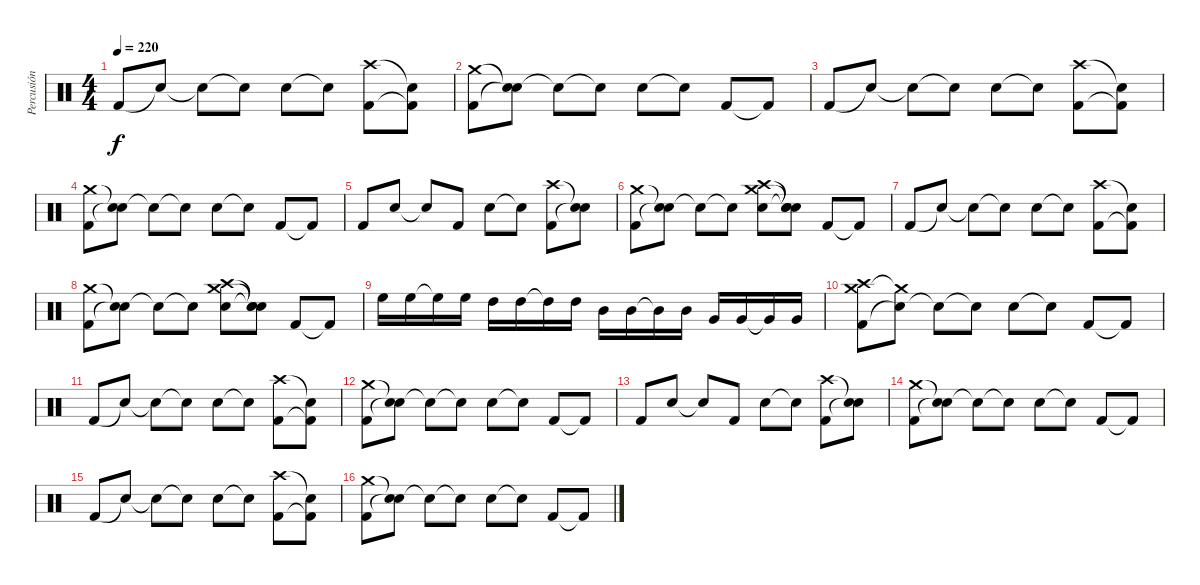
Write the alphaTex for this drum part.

\track ("Percusión" "Percusión") {instrument percussion}
\staff {score}
\articulation defaults
\ts (4 4)
\tempo 220
\clef neutral
\ks c "Kick (hit) 2".8{dy f} "Snare (hit)"{t}.8 "Snare (hit)"{t}.8 "Snare (hit)"{t}.8 "Snare (hit) 2".8 "Snare (hit)"{t}.8
("Kick (hit) 2" "Crash high (hit)").8 ("Kick (hit) 2"{t} "Snare (hit)"{t}).8 |
("Kick (hit) 2" "Crash medium (hit)").8 ("Snare (hit)"{t} "Snare (hit)"{t}).8 "Snare (hit)"{t}.8 "Snare (hit)"{t}.8 "Snare (hit) 2".8 "Snare (hit)"{t}.8 "Kick (hit) 2".8 "Kick (hit) 2"{t}.8 |
"Kick (hit) 2".8 "Snare (hit)"{t}.8 "Snare (hit)"{t}.8 "Snare (hit)"{t}.8 "Snare (hit) 2".8 "Snare (hit)"{t}.8 ("Kick (hit) 2" "Crash high (hit)").8 ("Kick (hit) 2"{t} "Snare (hit)"{t}).8 |
("Kick (hit) 2" "Crash medium (hit)").8 ("Snare (hit)"{t} "Snare (hit)"{t}).8 "Snare (hit)"{t}.8 "Snare (hit)"{t}.8 "Snare (hit) 2".8 "Snare (hit)"{t}.8 "Kick (hit) 2".8 "Kick (hit) 2"{t}.8 |
"Kick (hit) 2".8 "Snare (hit) 2".8 "Snare (hit)"{t}.8 "Kick (hit) 2".8 "Snare (hit) 2".8 "Snare (hit)"{t}.8 ("Kick (hit) 2" "Crash high (hit)").8 ("Snare (hit)"{t} "Snare (hit)"{t}).8 |
("Kick (hit) 2" "Crash medium (hit)").8 ("Snare (hit)"{t} "Snare (hit)"{t}).8 "Snare (hit)"{t}.8 "Snare (hit)"{t}.8 ("Snare (hit) 2" "Crash high (hit)" "Crash medium (hit)").8 ("Snare (hit)"{t} "Snare (hit)"{t} "Snare (hit)"{t}).8 "Kick (hit) 2".8 "Kick (hit) 2"{t}.8 |
"Kick (hit) 2".8 "Snare (hit)"{t}.8 "Snare (hit)"{t}.8 "Snare (hit)"{t}.8 "Snare (hit) 2".8 "Snare (hit)"{t}.8 ("Kick (hit) 2" "Crash high (hit)").8 ("Kick (hit) 2"{t} "Snare (hit)"{t}).8 |
("Kick (hit) 2" "Crash medium (hit)").8 ("Snare (hit)"{t} "Snare (hit)"{t}).8 "Snare (hit)"{t}.8 "Snare (hit)"{t}.8 ("Snare (hit) 2" "Crash high (hit)" "Crash medium (hit)").8 ("Snare (hit)"{t} "Snare (hit)"{t} "Snare (hit)"{t}).8 "Kick (hit) 2".8 "Kick (hit) 2"{t}.8 |
"High Floor Tom (hit)".16 "High Floor Tom (hit)".16 "High Floor Tom (hit)"{t}.16 "High Floor Tom (hit)".16 "High Tom (hit)".16 "High Tom (hit)".16 "High Tom (hit)"{t}.16 "High Tom (hit)".16 "Mid Tom (hit)".16 "Mid Tom (hit)".16 "Mid Tom (hit)"{t}.16 "Mid Tom (hit)".16 "Very Low Tom (hit)".16 "Very Low Tom (hit)".16 "Very Low Tom (hit)"{t}.16 "Very Low Tom (hit)".16 |
("Kick (hit) 2" "Crash medium (hit)" "Crash high (hit)").8 ("Snare (hit)"{t} "Crash medium (hit)"{t}).8 "Snare (hit)"{t}.8 "Snare (hit)"{t}.8 "Snare (hit) 2".8 "Snare (hit)"{t}.8 "Kick (hit) 2".8 "Kick (hit) 2"{t}.8 |
"Kick (hit) 2".8 "Snare (hit)"{t}.8 "Snare (hit)"{t}.8 "Snare (hit)"{t}.8 "Snare (hit) 2".8 "Snare (hit)"{t}.8 ("Kick (hit) 2" "Crash high (hit)").8 ("Kick (hit) 2"{t} "Snare (hit)"{t}).8 |
("Kick (hit) 2" "Crash medium (hit)").8 ("Snare (hit)"{t} "Snare (hit)"{t}).8 "Snare (hit)"{t}.8 "Snare (hit)"{t}.8 "Snare (hit) 2".8 "Snare (hit)"{t}.8 "Kick (hit) 2".8 "Kick (hit) 2"{t}.8 |
"Kick (hit) 2".8 "Snare (hit) 2".8 "Snare (hit)"{t}.8 "Kick (hit) 2".8 "Snare (hit) 2".8 "Snare (hit)"{t}.8 ("Kick (hit) 2" "Crash high (hit)").8 ("Snare (hit)"{t} "Snare (hit)"{t}).8 |
("Kick (hit) 2" "Crash medium (hit)").8 ("Snare (hit)"{t} "Snare (hit)"{t}).8 "Snare (hit)"{t}.8 "Snare (hit)"{t}.8 "Snare (hit) 2".8 "Snare (hit)"{t}.8 "Kick (hit) 2".8 "Kick (hit) 2"{t}.8 |
"Kick (hit) 2".8 "Snare (hit)"{t}.8 "Snare (hit)"{t}.8 "Snare (hit)"{t}.8 "Snare (hit) 2".8 "Snare (hit)"{t}.8 ("Kick (hit) 2" "Crash high (hit)").8 ("Kick (hit) 2"{t} "Snare (hit)"{t}).8 |
("Kick (hit) 2" "Crash medium (hit)").8 ("Snare (hit)"{t} "Snare (hit)"{t}).8 "Snare (hit)"{t}.8 "Snare (hit)"{t}.8 "Snare (hit) 2".8 "Snare (hit)"{t}.8 "Kick (hit) 2".8 "Kick (hit) 2"{t}.8
